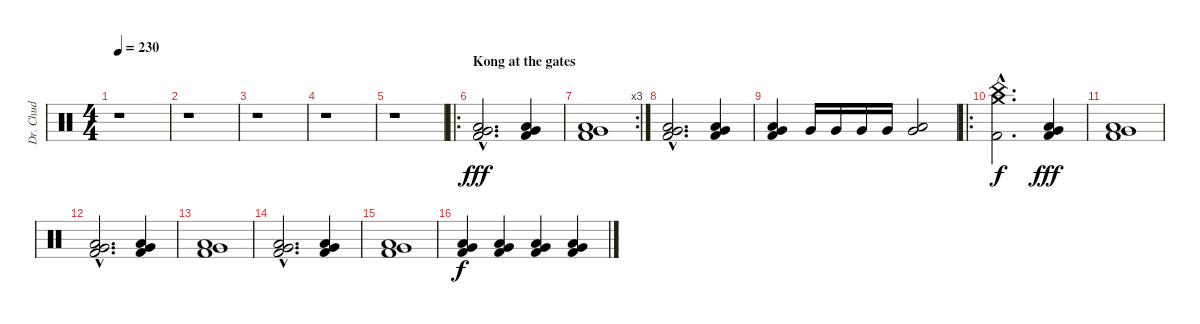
\track ("Dr. Chud" "Dr. Chud") {instrument percussion}
\staff {score}
\articulation defaults
\ts (4 4)
\tempo 230
\tempo 188
\tempo 230
\clef neutral
\ks c
r.1{dy fff} |
r.1 |
r.1 |
r.1 |
r.1 |
\ro
\section ("" "Kong at the gates")
("Low Tom (hit)"{hac} "Very Low Tom (hit)"{hac} "Kick (hit) 2"{hac}).2{d} ("Low Tom (hit)" "Very Low Tom (hit)" "Kick (hit) 2").4 |
\rc 3
("Low Tom (hit)" "Very Low Tom (hit)" "Kick (hit) 2").1 |
("Low Tom (hit)"{hac} "Very Low Tom (hit)"{hac} "Kick (hit) 2"{hac}).2{d} ("Low Tom (hit)" "Very Low Tom (hit)" "Kick (hit) 2").4 |
("Low Tom (hit)" "Very Low Tom (hit)" "Kick (hit) 2").4 "Very Low Tom (hit)".16 "Very Low Tom (hit)".16 "Very Low Tom (hit)".16 "Very Low Tom (hit)".16 ("Very Low Tom (hit)" "Low Floor Tom (hit)").2 |
\ro
("China (hit)"{hac} "Crash medium (hit)"{hac} "Kick (hit) 2"{hac}).2{d dy f} ("Low Tom (hit)" "Very Low Tom (hit)" "Kick (hit) 2").4{dy fff} |
("Low Tom (hit)" "Very Low Tom (hit)" "Kick (hit) 2").1 |
("Low Tom (hit)"{hac} "Very Low Tom (hit)"{hac} "Kick (hit) 2"{hac}).2{d} ("Low Tom (hit)" "Very Low Tom (hit)" "Kick (hit) 2").4 |
("Low Tom (hit)" "Very Low Tom (hit)" "Kick (hit) 2").1 |
("Low Tom (hit)"{hac} "Very Low Tom (hit)"{hac} "Kick (hit) 2"{hac}).2{d} ("Low Tom (hit)" "Very Low Tom (hit)" "Kick (hit) 2").4 |
("Low Tom (hit)" "Very Low Tom (hit)" "Kick (hit) 2").1 |
("Low Tom (hit)" "Very Low Tom (hit)" "Kick (hit) 2").4{dy f} ("Low Tom (hit)" "Very Low Tom (hit)" "Kick (hit) 2").4 ("Low Tom (hit)" "Very Low Tom (hit)" "Kick (hit) 2").4 ("Low Tom (hit)" "Very Low Tom (hit)" "Kick (hit) 2").4
